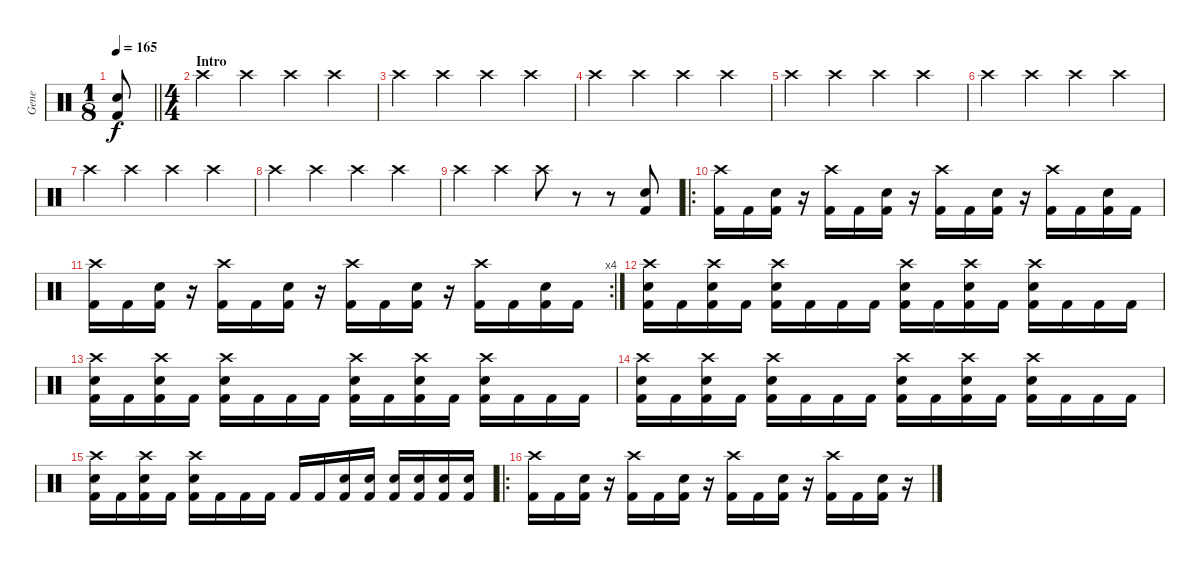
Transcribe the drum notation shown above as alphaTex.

\track ("Gene" "Gene") {instrument percussion}
\staff {score}
\articulation defaults
\ts (1 8)
\tempo 165
\clef neutral
\barLineRight lightlight
\ks c
("Kick (hit) 2" "Electric Snare (hit)").8{dy f} |
\ts (4 4)
\section ("" "Intro")
"Crash high (hit)".4 "Crash high (hit)".4 "Crash high (hit)".4 "Crash high (hit)".4 |
"Crash high (hit)".4 "Crash high (hit)".4 "Crash high (hit)".4 "Crash high (hit)".4 |
"Crash high (hit)".4 "Crash high (hit)".4 "Crash high (hit)".4 "Crash high (hit)".4 |
"Crash high (hit)".4 "Crash high (hit)".4 "Crash high (hit)".4 "Crash high (hit)".4 |
"Crash high (hit)".4 "Crash high (hit)".4 "Crash high (hit)".4 "Crash high (hit)".4 |
"Crash high (hit)".4 "Crash high (hit)".4 "Crash high (hit)".4 "Crash high (hit)".4 |
"Crash high (hit)".4 "Crash high (hit)".4 "Crash high (hit)".4 "Crash high (hit)".4 |
"Crash high (hit)".4 "Crash high (hit)".4 "Crash high (hit)".8 r.8 r.8 ("Kick (hit) 2" "Electric Snare (hit)").8 |
\ro
("Crash high (hit)" "Kick (hit) 2").16 "Kick (hit) 2".16 ("Electric Snare (hit)" "Kick (hit) 2").16 r.16 ("Crash high (hit)" "Kick (hit) 2").16 "Kick (hit) 2".16 ("Electric Snare (hit)" "Kick (hit) 2").16 r.16 ("Crash high (hit)" "Kick (hit) 2").16 "Kick (hit) 2".16 ("Electric Snare (hit)" "Kick (hit) 2").16 r.16 ("Crash high (hit)" "Kick (hit) 2").16 "Kick (hit) 2".16 ("Electric Snare (hit)" "Kick (hit) 2").16 "Kick (hit) 2".16 |
\rc 4
("Crash high (hit)" "Kick (hit) 2").16 "Kick (hit) 2".16 ("Electric Snare (hit)" "Kick (hit) 2").16 r.16 ("Crash high (hit)" "Kick (hit) 2").16 "Kick (hit) 2".16 ("Electric Snare (hit)" "Kick (hit) 2").16 r.16 ("Crash high (hit)" "Kick (hit) 2").16 "Kick (hit) 2".16 ("Electric Snare (hit)" "Kick (hit) 2").16 r.16 ("Crash high (hit)" "Kick (hit) 2").16 "Kick (hit) 2".16 ("Electric Snare (hit)" "Kick (hit) 2").16 "Kick (hit) 2".16 |
("Electric Snare (hit)" "Crash high (hit)" "Kick (hit) 2").16 "Kick (hit) 2".16 ("Electric Snare (hit)" "Crash high (hit)" "Kick (hit) 2").16 "Kick (hit) 2".16 ("Electric Snare (hit)" "Crash high (hit)" "Kick (hit) 2").16 "Kick (hit) 2".16 "Kick (hit) 2".16 "Kick (hit) 2".16 ("Electric Snare (hit)" "Crash high (hit)" "Kick (hit) 2").16 "Kick (hit) 2".16 ("Electric Snare (hit)" "Crash high (hit)" "Kick (hit) 2").16 "Kick (hit) 2".16 ("Electric Snare (hit)" "Crash high (hit)" "Kick (hit) 2").16 "Kick (hit) 2".16 "Kick (hit) 2".16 "Kick (hit) 2".16 |
("Electric Snare (hit)" "Crash high (hit)" "Kick (hit) 2").16 "Kick (hit) 2".16 ("Electric Snare (hit)" "Crash high (hit)" "Kick (hit) 2").16 "Kick (hit) 2".16 ("Electric Snare (hit)" "Crash high (hit)" "Kick (hit) 2").16 "Kick (hit) 2".16 "Kick (hit) 2".16 "Kick (hit) 2".16 ("Electric Snare (hit)" "Crash high (hit)" "Kick (hit) 2").16 "Kick (hit) 2".16 ("Electric Snare (hit)" "Crash high (hit)" "Kick (hit) 2").16 "Kick (hit) 2".16 ("Electric Snare (hit)" "Crash high (hit)" "Kick (hit) 2").16 "Kick (hit) 2".16 "Kick (hit) 2".16 "Kick (hit) 2".16 |
("Electric Snare (hit)" "Crash high (hit)" "Kick (hit) 2").16 "Kick (hit) 2".16 ("Electric Snare (hit)" "Crash high (hit)" "Kick (hit) 2").16 "Kick (hit) 2".16 ("Electric Snare (hit)" "Crash high (hit)" "Kick (hit) 2").16 "Kick (hit) 2".16 "Kick (hit) 2".16 "Kick (hit) 2".16 ("Electric Snare (hit)" "Crash high (hit)" "Kick (hit) 2").16 "Kick (hit) 2".16 ("Electric Snare (hit)" "Crash high (hit)" "Kick (hit) 2").16 "Kick (hit) 2".16 ("Electric Snare (hit)" "Crash high (hit)" "Kick (hit) 2").16 "Kick (hit) 2".16 "Kick (hit) 2".16 "Kick (hit) 2".16 |
("Electric Snare (hit)" "Crash high (hit)" "Kick (hit) 2").16 "Kick (hit) 2".16 ("Electric Snare (hit)" "Crash high (hit)" "Kick (hit) 2").16 "Kick (hit) 2".16 ("Electric Snare (hit)" "Crash high (hit)" "Kick (hit) 2").16 "Kick (hit) 2".16 "Kick (hit) 2".16 "Kick (hit) 2".16 "Kick (hit) 2".16 "Kick (hit) 2".16 ("Electric Snare (hit)" "Kick (hit) 2").16 ("Electric Snare (hit)" "Kick (hit) 2").16 ("Electric Snare (hit)" "Kick (hit) 2").16 ("Electric Snare (hit)" "Kick (hit) 2").16 ("Electric Snare (hit)" "Kick (hit) 2").16 ("Electric Snare (hit)" "Kick (hit) 2").16 |
\ro
("Crash high (hit)" "Kick (hit) 2").16 "Kick (hit) 2".16 ("Electric Snare (hit)" "Kick (hit) 2").16 r.16 ("Crash high (hit)" "Kick (hit) 2").16 "Kick (hit) 2".16 ("Electric Snare (hit)" "Kick (hit) 2").16 r.16 ("Crash high (hit)" "Kick (hit) 2").16 "Kick (hit) 2".16 ("Electric Snare (hit)" "Kick (hit) 2").16 r.16 ("Crash high (hit)" "Kick (hit) 2").16 "Kick (hit) 2".16 ("Electric Snare (hit)" "Kick (hit) 2").16 r.16
